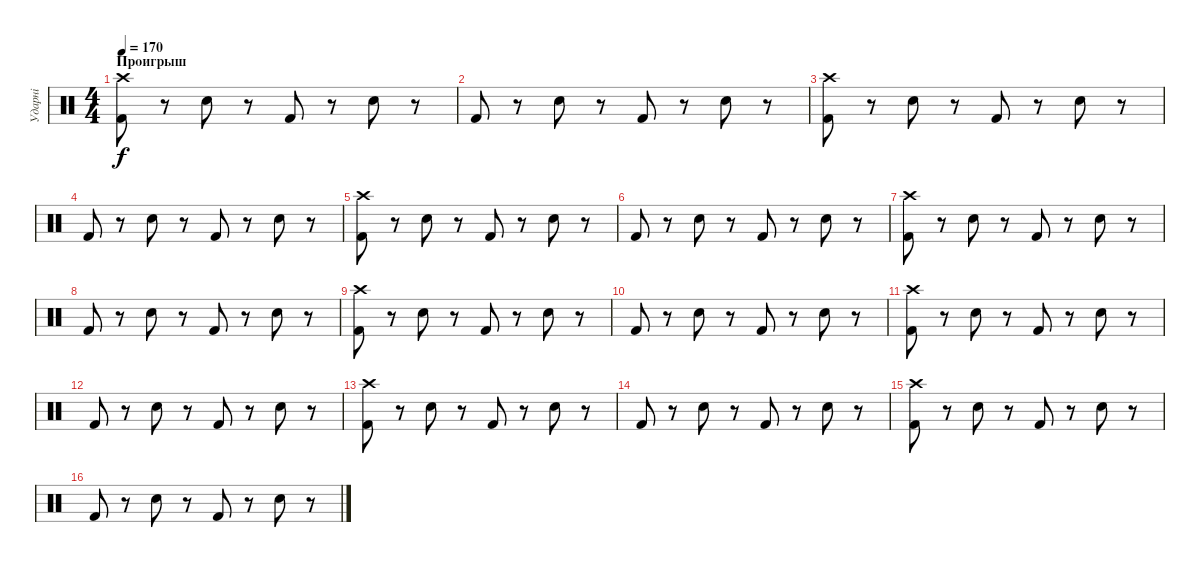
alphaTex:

\track ("Ударні" "Ударні") {instrument percussion}
\staff {score}
\articulation defaults
\ts (4 4)
\section ("" "Проигрыш")
\tempo 170
\clef neutral
\ks c
("Kick (hit) 2" "Crash high (hit)").8{dy f} r.8 "Electric Snare (hit)".8 r.8 "Kick (hit) 2".8 r.8 "Electric Snare (hit)".8 r.8 |
"Kick (hit) 2".8 r.8 "Electric Snare (hit)".8 r.8 "Kick (hit) 2".8 r.8 "Electric Snare (hit)".8 r.8 |
("Kick (hit) 2" "Crash high (hit)").8 r.8 "Electric Snare (hit)".8 r.8 "Kick (hit) 2".8 r.8 "Electric Snare (hit)".8 r.8 |
"Kick (hit) 2".8 r.8 "Electric Snare (hit)".8 r.8 "Kick (hit) 2".8 r.8 "Electric Snare (hit)".8 r.8 |
("Kick (hit) 2" "Crash high (hit)").8 r.8 "Electric Snare (hit)".8 r.8 "Kick (hit) 2".8 r.8 "Electric Snare (hit)".8 r.8 |
"Kick (hit) 2".8 r.8 "Electric Snare (hit)".8 r.8 "Kick (hit) 2".8 r.8 "Electric Snare (hit)".8 r.8 |
("Kick (hit) 2" "Crash high (hit)").8 r.8 "Electric Snare (hit)".8 r.8 "Kick (hit) 2".8 r.8 "Electric Snare (hit)".8 r.8 |
"Kick (hit) 2".8 r.8 "Electric Snare (hit)".8 r.8 "Kick (hit) 2".8 r.8 "Electric Snare (hit)".8 r.8 |
("Kick (hit) 2" "Crash high (hit)").8 r.8 "Electric Snare (hit)".8 r.8 "Kick (hit) 2".8 r.8 "Electric Snare (hit)".8 r.8 |
"Kick (hit) 2".8 r.8 "Electric Snare (hit)".8 r.8 "Kick (hit) 2".8 r.8 "Electric Snare (hit)".8 r.8 |
("Kick (hit) 2" "Crash high (hit)").8 r.8 "Electric Snare (hit)".8 r.8 "Kick (hit) 2".8 r.8 "Electric Snare (hit)".8 r.8 |
"Kick (hit) 2".8 r.8 "Electric Snare (hit)".8 r.8 "Kick (hit) 2".8 r.8 "Electric Snare (hit)".8 r.8 |
("Kick (hit) 2" "Crash high (hit)").8 r.8 "Electric Snare (hit)".8 r.8 "Kick (hit) 2".8 r.8 "Electric Snare (hit)".8 r.8 |
"Kick (hit) 2".8 r.8 "Electric Snare (hit)".8 r.8 "Kick (hit) 2".8 r.8 "Electric Snare (hit)".8 r.8 |
("Kick (hit) 2" "Crash high (hit)").8 r.8 "Electric Snare (hit)".8 r.8 "Kick (hit) 2".8 r.8 "Electric Snare (hit)".8 r.8 |
"Kick (hit) 2".8 r.8 "Electric Snare (hit)".8 r.8 "Kick (hit) 2".8 r.8 "Electric Snare (hit)".8 r.8
